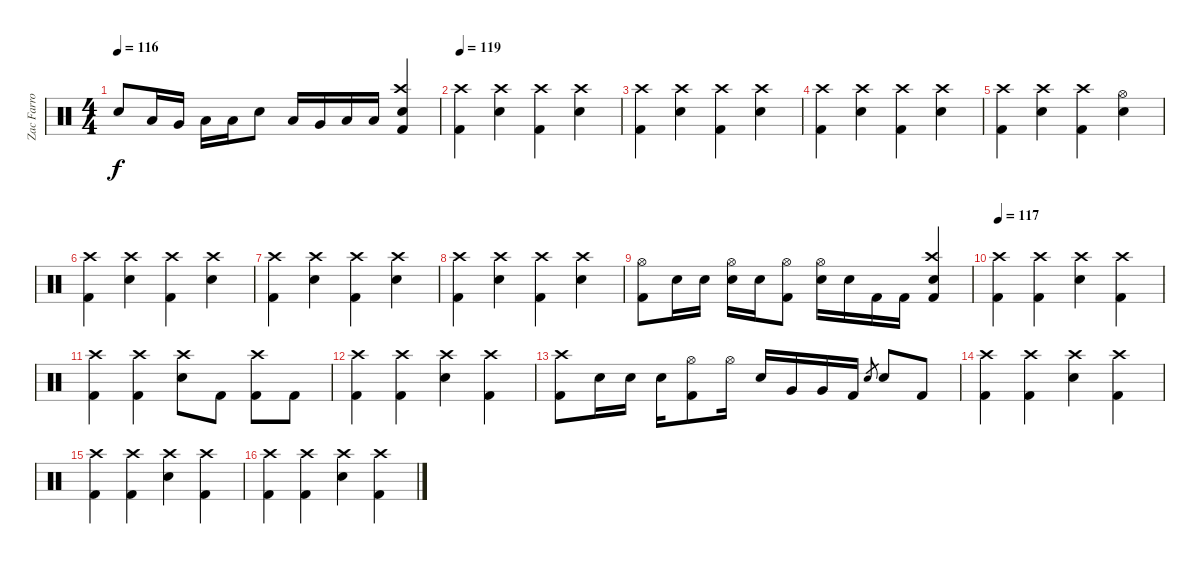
\track ("Zac Farro" "Zac Farro") {instrument percussion}
\staff {score}
\articulation defaults
\ts (4 4)
\tempo 116
\clef neutral
\ks c "Electric Snare (hit)".8{dy f} "Low Tom (hit)".16 "Very Low Tom (hit)".16 "Low Floor Tom (hit)".16 "Low Floor Tom (hit)".16 "Electric Snare (hit)".8 "Low Tom (hit)".16 "Very Low Tom (hit)".16 "Low Floor Tom (hit)".16 "Low Floor Tom (hit)".16
("Crash high (hit)" "Kick (hit) 2" "Electric Snare (hit)").4 |
\tempo 119
("Crash high (hit)" "Kick (hit) 2").4 ("Crash high (hit)" "Electric Snare (hit)").4 ("Crash high (hit)" "Kick (hit) 2").4 ("Crash high (hit)" "Electric Snare (hit)").4 |
("Crash high (hit)" "Kick (hit) 2").4 ("Crash high (hit)" "Electric Snare (hit)").4 ("Crash high (hit)" "Kick (hit) 2").4 ("Crash high (hit)" "Electric Snare (hit)").4 |
("Crash high (hit)" "Kick (hit) 2").4 ("Crash high (hit)" "Electric Snare (hit)").4 ("Crash high (hit)" "Kick (hit) 2").4 ("Crash high (hit)" "Electric Snare (hit)").4 |
("Crash high (hit)" "Kick (hit) 2").4 ("Crash high (hit)" "Electric Snare (hit)").4 ("Crash high (hit)" "Kick (hit) 2").4 ("Hi-Hat (open)" "Electric Snare (hit)").4 |
("Crash high (hit)" "Kick (hit) 2").4 ("Crash high (hit)" "Electric Snare (hit)").4 ("Crash high (hit)" "Kick (hit) 2").4 ("Crash high (hit)" "Electric Snare (hit)").4 |
("Crash high (hit)" "Kick (hit) 2").4 ("Crash high (hit)" "Electric Snare (hit)").4 ("Crash high (hit)" "Kick (hit) 2").4 ("Crash high (hit)" "Electric Snare (hit)").4 |
("Crash high (hit)" "Kick (hit) 2").4 ("Crash high (hit)" "Electric Snare (hit)").4 ("Crash high (hit)" "Kick (hit) 2").4 ("Crash high (hit)" "Electric Snare (hit)").4 |
("Hi-Hat (open)" "Kick (hit) 2").8 "Electric Snare (hit)".16 "Electric Snare (hit)".16 ("Hi-Hat (open)" "Electric Snare (hit)").16 "Electric Snare (hit)".16 ("Hi-Hat (open)" "Kick (hit) 2").8 ("Hi-Hat (open)" "Electric Snare (hit)").16 "Electric Snare (hit)".16 "Kick (hit) 2".16 "Kick (hit) 2".16 ("Crash high (hit)" "Kick (hit) 2" "Electric Snare (hit)").4 |
\tempo 117
("Crash high (hit)" "Kick (hit) 2").4 ("Crash high (hit)" "Kick (hit) 2").4 ("Crash high (hit)" "Electric Snare (hit)").4 ("Crash high (hit)" "Kick (hit) 2").4 |
("Crash high (hit)" "Kick (hit) 2").4 ("Crash high (hit)" "Kick (hit) 2").4 ("Crash high (hit)" "Electric Snare (hit)").8 "Kick (hit) 2".8 ("Crash high (hit)" "Kick (hit) 2").8 "Kick (hit) 2".8 |
("Crash high (hit)" "Kick (hit) 2").4 ("Crash high (hit)" "Kick (hit) 2").4 ("Crash high (hit)" "Electric Snare (hit)").4 ("Crash high (hit)" "Kick (hit) 2").4 |
("Crash high (hit)" "Kick (hit) 2").8 "Snare (hit) 2".16 "Snare (hit) 2".16 "Snare (hit) 2".16 ("Hi-Hat (open)" "Kick (hit) 2").8 "Hi-Hat (open)".16 "Electric Snare (hit)".16 "Very Low Tom (hit)".16 "Very Low Tom (hit)".16 "Kick (hit) 2".16 "Electric Snare (hit)".8{gr} "Electric Snare (hit)".8 "Kick (hit) 2".8 |
("Crash high (hit)" "Kick (hit) 2").4 ("Crash high (hit)" "Kick (hit) 2").4 ("Crash high (hit)" "Electric Snare (hit)").4 ("Crash high (hit)" "Kick (hit) 2").4 |
("Crash high (hit)" "Kick (hit) 2").4 ("Crash high (hit)" "Kick (hit) 2").4 ("Crash high (hit)" "Electric Snare (hit)").4 ("Crash high (hit)" "Kick (hit) 2").4 |
("Crash high (hit)" "Kick (hit) 2").4 ("Crash high (hit)" "Kick (hit) 2").4 ("Crash high (hit)" "Electric Snare (hit)").4 ("Crash high (hit)" "Kick (hit) 2").4
